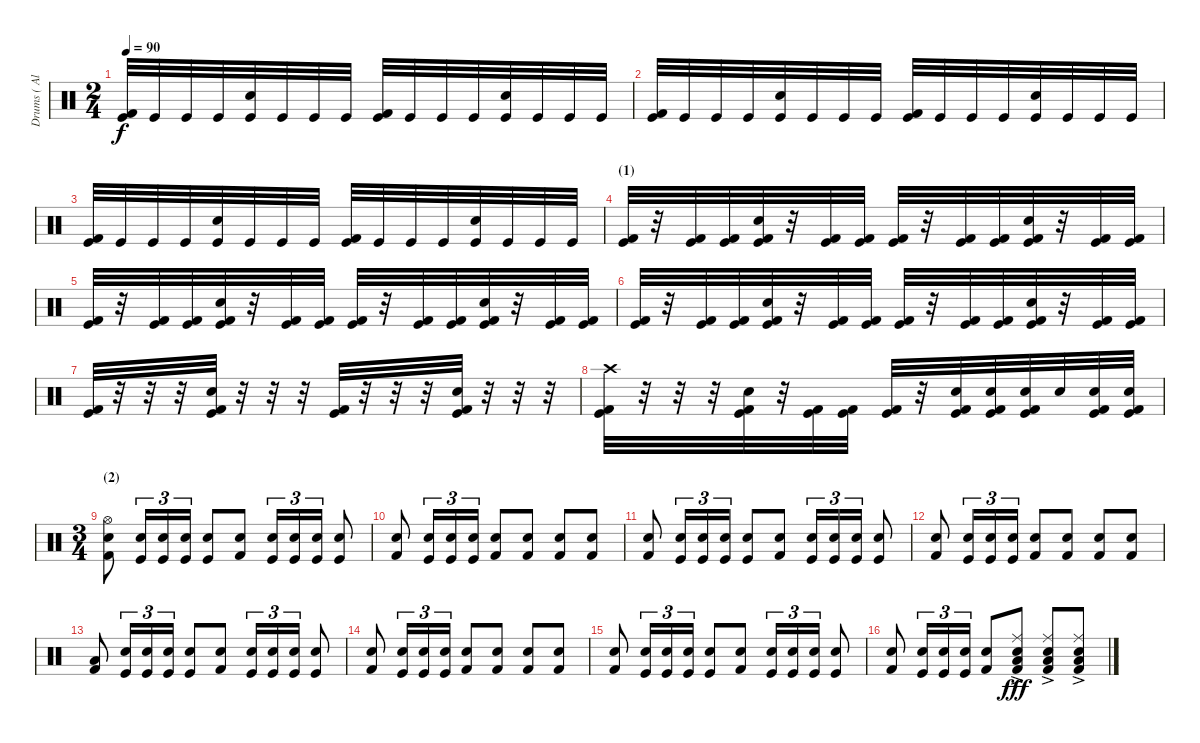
\track ("Drums ( Alex Holzwarth)" "Drums ( Al") {instrument percussion}
\staff {score}
\articulation defaults
\ts (2 4)
\tempo 90
\clef neutral
\ks c
("Kick (hit) 2" "Kick (hit)").32{dy f} "Kick (hit)".32 "Kick (hit)".32 "Kick (hit)".32 ("Snare (hit) 2" "Kick (hit)").32 "Kick (hit)".32 "Kick (hit)".32 "Kick (hit)".32 ("Kick (hit) 2" "Kick (hit)").32 "Kick (hit)".32 "Kick (hit)".32 "Kick (hit)".32 ("Snare (hit) 2" "Kick (hit)").32 "Kick (hit)".32 "Kick (hit)".32 "Kick (hit)".32 |
("Kick (hit) 2" "Kick (hit)").32 "Kick (hit)".32 "Kick (hit)".32 "Kick (hit)".32 ("Snare (hit) 2" "Kick (hit)").32 "Kick (hit)".32 "Kick (hit)".32 "Kick (hit)".32 ("Kick (hit) 2" "Kick (hit)").32 "Kick (hit)".32 "Kick (hit)".32 "Kick (hit)".32 ("Snare (hit) 2" "Kick (hit)").32 "Kick (hit)".32 "Kick (hit)".32 "Kick (hit)".32 |
("Kick (hit) 2" "Kick (hit)").32 "Kick (hit)".32 "Kick (hit)".32 "Kick (hit)".32 ("Snare (hit) 2" "Kick (hit)").32 "Kick (hit)".32 "Kick (hit)".32 "Kick (hit)".32 ("Kick (hit) 2" "Kick (hit)").32 "Kick (hit)".32 "Kick (hit)".32 "Kick (hit)".32 ("Snare (hit) 2" "Kick (hit)").32 "Kick (hit)".32 "Kick (hit)".32 "Kick (hit)".32 |
\section ("" "(1)")
("Kick (hit) 2" "Kick (hit)").32 r.32 ("Kick (hit) 2" "Kick (hit)").32 ("Kick (hit) 2" "Kick (hit)").32 ("Snare (hit) 2" "Kick (hit) 2" "Kick (hit)").32 r.32 ("Kick (hit) 2" "Kick (hit)").32 ("Kick (hit) 2" "Kick (hit)").32 ("Kick (hit) 2" "Kick (hit)").32 r.32 ("Kick (hit) 2" "Kick (hit)").32 ("Kick (hit) 2" "Kick (hit)").32 ("Snare (hit) 2" "Kick (hit) 2" "Kick (hit)").32 r.32 ("Kick (hit) 2" "Kick (hit)").32 ("Kick (hit) 2" "Kick (hit)").32 |
("Kick (hit) 2" "Kick (hit)").32 r.32 ("Kick (hit) 2" "Kick (hit)").32 ("Kick (hit) 2" "Kick (hit)").32 ("Snare (hit) 2" "Kick (hit) 2" "Kick (hit)").32 r.32 ("Kick (hit) 2" "Kick (hit)").32 ("Kick (hit) 2" "Kick (hit)").32 ("Kick (hit) 2" "Kick (hit)").32 r.32 ("Kick (hit) 2" "Kick (hit)").32 ("Kick (hit) 2" "Kick (hit)").32 ("Snare (hit) 2" "Kick (hit) 2" "Kick (hit)").32 r.32 ("Kick (hit) 2" "Kick (hit)").32 ("Kick (hit) 2" "Kick (hit)").32 |
("Kick (hit) 2" "Kick (hit)").32 r.32 ("Kick (hit) 2" "Kick (hit)").32 ("Kick (hit) 2" "Kick (hit)").32 ("Snare (hit) 2" "Kick (hit) 2" "Kick (hit)").32 r.32 ("Kick (hit) 2" "Kick (hit)").32 ("Kick (hit) 2" "Kick (hit)").32 ("Kick (hit) 2" "Kick (hit)").32 r.32 ("Kick (hit) 2" "Kick (hit)").32 ("Kick (hit) 2" "Kick (hit)").32 ("Snare (hit) 2" "Kick (hit) 2" "Kick (hit)").32 r.32 ("Kick (hit) 2" "Kick (hit)").32 ("Kick (hit) 2" "Kick (hit)").32 |
("Kick (hit) 2" "Kick (hit)").32 r.32 r.32 r.32 ("Snare (hit) 2" "Kick (hit) 2" "Kick (hit)").32 r.32 r.32 r.32 ("Kick (hit) 2" "Kick (hit)").32 r.32 r.32 r.32 ("Snare (hit) 2" "Kick (hit) 2" "Kick (hit)").32 r.32 r.32 r.32 |
("Crash high (hit)" "Kick (hit) 2" "Kick (hit)").32 r.32 r.32 r.32 ("Snare (hit) 2" "Kick (hit) 2" "Kick (hit)").32 r.32 ("Kick (hit) 2" "Kick (hit)").32 ("Kick (hit) 2" "Kick (hit)").32 ("Kick (hit) 2" "Kick (hit)").32 r.32 ("Electric Snare (hit)" "Kick (hit) 2" "Kick (hit)").32 ("Electric Snare (hit)" "Kick (hit) 2" "Kick (hit)").32 ("Electric Snare (hit)" "Kick (hit) 2" "Kick (hit)").32 "Electric Snare (hit)".32 ("Electric Snare (hit)" "Kick (hit) 2" "Kick (hit)").32 ("Electric Snare (hit)" "Kick (hit) 2" "Kick (hit)").32 |
\ts (3 4)
\section ("" "(2)")
("Hi-Hat (open)" "Electric Snare (hit)" "Kick (hit) 2").8 ("Electric Snare (hit)" "Kick (hit)").16{tu (3 2)} ("Electric Snare (hit)" "Kick (hit)").16{tu (3 2)} ("Electric Snare (hit)" "Kick (hit)").16{tu (3 2)} ("Electric Snare (hit)" "Kick (hit)").8 ("Electric Snare (hit)" "Kick (hit) 2").8 ("Electric Snare (hit)" "Kick (hit)").16{tu (3 2)} ("Electric Snare (hit)" "Kick (hit)").16{tu (3 2)} ("Electric Snare (hit)" "Kick (hit)").16{tu (3 2)} ("Electric Snare (hit)" "Kick (hit)").8 |
("Electric Snare (hit)" "Kick (hit) 2").8 ("Electric Snare (hit)" "Kick (hit)").16{tu (3 2)} ("Electric Snare (hit)" "Kick (hit)").16{tu (3 2)} ("Electric Snare (hit)" "Kick (hit)").16{tu (3 2)} ("Electric Snare (hit)" "Kick (hit) 2").8 ("Electric Snare (hit)" "Kick (hit) 2").8 ("Electric Snare (hit)" "Kick (hit) 2").8 ("Electric Snare (hit)" "Kick (hit) 2").8 |
("Electric Snare (hit)" "Kick (hit) 2").8 ("Electric Snare (hit)" "Kick (hit)").16{tu (3 2)} ("Electric Snare (hit)" "Kick (hit)").16{tu (3 2)} ("Electric Snare (hit)" "Kick (hit)").16{tu (3 2)} ("Electric Snare (hit)" "Kick (hit)").8 ("Electric Snare (hit)" "Kick (hit) 2").8 ("Electric Snare (hit)" "Kick (hit)").16{tu (3 2)} ("Electric Snare (hit)" "Kick (hit)").16{tu (3 2)} ("Electric Snare (hit)" "Kick (hit)").16{tu (3 2)} ("Electric Snare (hit)" "Kick (hit)").8 |
("Electric Snare (hit)" "Kick (hit) 2").8 ("Electric Snare (hit)" "Kick (hit)").16{tu (3 2)} ("Electric Snare (hit)" "Kick (hit)").16{tu (3 2)} ("Electric Snare (hit)" "Kick (hit)").16{tu (3 2)} ("Electric Snare (hit)" "Kick (hit) 2").8 ("Electric Snare (hit)" "Kick (hit) 2").8 ("Electric Snare (hit)" "Kick (hit) 2").8 ("Electric Snare (hit)" "Kick (hit) 2").8 |
("Low Tom (hit)" "Kick (hit) 2").8 ("Electric Snare (hit)" "Kick (hit)").16{tu (3 2)} ("Electric Snare (hit)" "Kick (hit)").16{tu (3 2)} ("Electric Snare (hit)" "Kick (hit)").16{tu (3 2)} ("Electric Snare (hit)" "Kick (hit)").8 ("Electric Snare (hit)" "Kick (hit) 2").8 ("Electric Snare (hit)" "Kick (hit)").16{tu (3 2)} ("Electric Snare (hit)" "Kick (hit)").16{tu (3 2)} ("Electric Snare (hit)" "Kick (hit)").16{tu (3 2)} ("Electric Snare (hit)" "Kick (hit)").8 |
("Electric Snare (hit)" "Kick (hit) 2").8 ("Electric Snare (hit)" "Kick (hit)").16{tu (3 2)} ("Electric Snare (hit)" "Kick (hit)").16{tu (3 2)} ("Electric Snare (hit)" "Kick (hit)").16{tu (3 2)} ("Electric Snare (hit)" "Kick (hit) 2").8 ("Electric Snare (hit)" "Kick (hit) 2").8 ("Electric Snare (hit)" "Kick (hit) 2").8 ("Electric Snare (hit)" "Kick (hit) 2").8 |
("Electric Snare (hit)" "Kick (hit) 2").8 ("Electric Snare (hit)" "Kick (hit)").16{tu (3 2)} ("Electric Snare (hit)" "Kick (hit)").16{tu (3 2)} ("Electric Snare (hit)" "Kick (hit)").16{tu (3 2)} ("Electric Snare (hit)" "Kick (hit)").8 ("Electric Snare (hit)" "Kick (hit) 2").8 ("Electric Snare (hit)" "Kick (hit)").16{tu (3 2)} ("Electric Snare (hit)" "Kick (hit)").16{tu (3 2)} ("Electric Snare (hit)" "Kick (hit)").16{tu (3 2)} ("Electric Snare (hit)" "Kick (hit)").8 |
("Electric Snare (hit)" "Kick (hit) 2").8 ("Electric Snare (hit)" "Kick (hit)").16{tu (3 2)} ("Electric Snare (hit)" "Kick (hit)").16{tu (3 2)} ("Electric Snare (hit)" "Kick (hit)").16{tu (3 2)} ("Electric Snare (hit)" "Kick (hit) 2").8 ("Ride (middle)" "Low Floor Tom (hit)" "Electric Snare (hit)"{ac} "Kick (hit) 2"{ac}).8{dy fff} ("Ride (middle)" "Low Floor Tom (hit)" "Electric Snare (hit)"{ac} "Kick (hit) 2"{ac}).8 ("Ride (middle)" "Low Floor Tom (hit)" "Electric Snare (hit)"{ac} "Kick (hit) 2"{ac}).8
